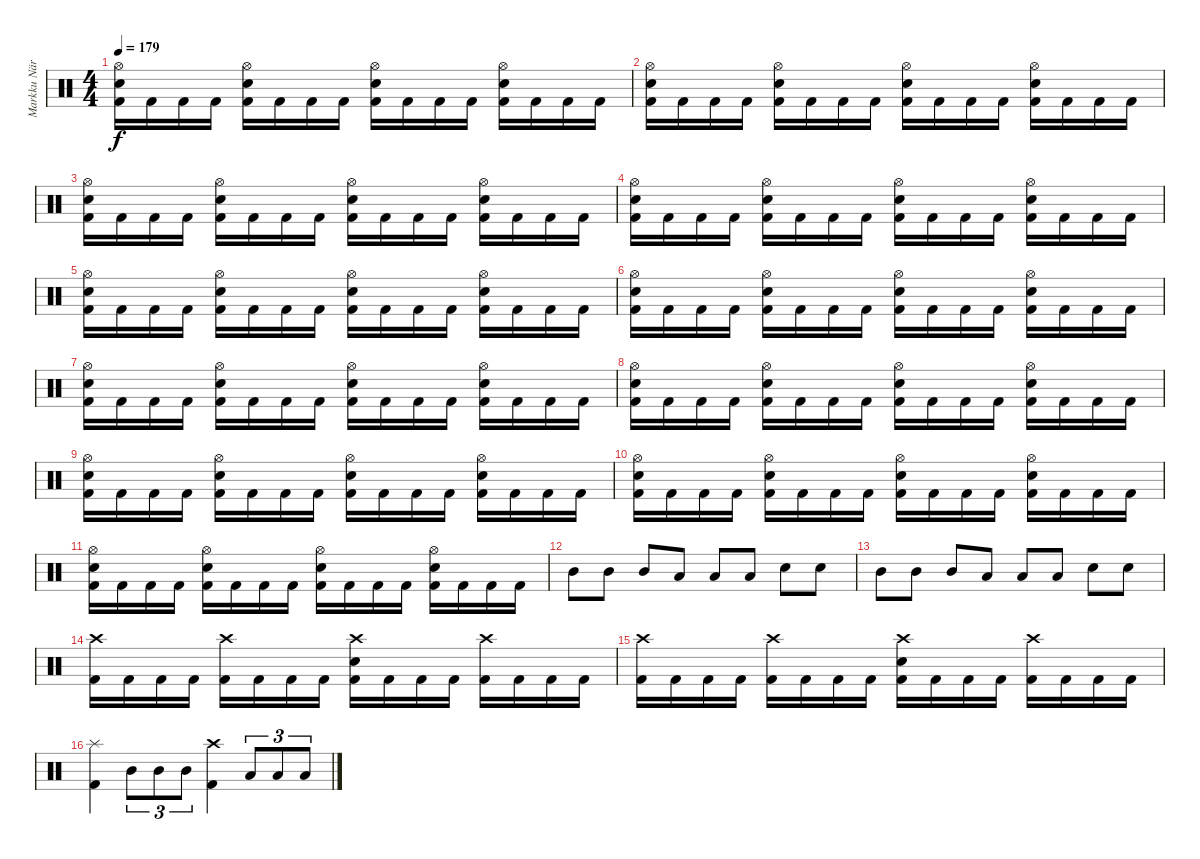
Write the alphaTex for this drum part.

\track ("Markku Näreneva (Drums)" "Markku När") {instrument percussion}
\staff {score}
\articulation defaults
\ts (4 4)
\tempo 179
\clef neutral
\ks c
("Kick (hit) 2" "Snare (hit) 2" "Hi-Hat (open)").16{dy f} "Kick (hit) 2".16 "Kick (hit) 2".16 "Kick (hit) 2".16 ("Kick (hit) 2" "Snare (hit) 2" "Hi-Hat (open)").16 "Kick (hit) 2".16 "Kick (hit) 2".16 "Kick (hit) 2".16 ("Kick (hit) 2" "Snare (hit) 2" "Hi-Hat (open)").16 "Kick (hit) 2".16 "Kick (hit) 2".16 "Kick (hit) 2".16 ("Kick (hit) 2" "Snare (hit) 2" "Hi-Hat (open)").16 "Kick (hit) 2".16 "Kick (hit) 2".16 "Kick (hit) 2".16 |
("Kick (hit) 2" "Snare (hit) 2" "Hi-Hat (open)").16 "Kick (hit) 2".16 "Kick (hit) 2".16 "Kick (hit) 2".16 ("Kick (hit) 2" "Snare (hit) 2" "Hi-Hat (open)").16 "Kick (hit) 2".16 "Kick (hit) 2".16 "Kick (hit) 2".16 ("Kick (hit) 2" "Snare (hit) 2" "Hi-Hat (open)").16 "Kick (hit) 2".16 "Kick (hit) 2".16 "Kick (hit) 2".16 ("Kick (hit) 2" "Snare (hit) 2" "Hi-Hat (open)").16 "Kick (hit) 2".16 "Kick (hit) 2".16 "Kick (hit) 2".16 |
("Kick (hit) 2" "Snare (hit) 2" "Hi-Hat (open)").16 "Kick (hit) 2".16 "Kick (hit) 2".16 "Kick (hit) 2".16 ("Kick (hit) 2" "Snare (hit) 2" "Hi-Hat (open)").16 "Kick (hit) 2".16 "Kick (hit) 2".16 "Kick (hit) 2".16 ("Kick (hit) 2" "Snare (hit) 2" "Hi-Hat (open)").16 "Kick (hit) 2".16 "Kick (hit) 2".16 "Kick (hit) 2".16 ("Kick (hit) 2" "Snare (hit) 2" "Hi-Hat (open)").16 "Kick (hit) 2".16 "Kick (hit) 2".16 "Kick (hit) 2".16 |
("Kick (hit) 2" "Snare (hit) 2" "Hi-Hat (open)").16 "Kick (hit) 2".16 "Kick (hit) 2".16 "Kick (hit) 2".16 ("Kick (hit) 2" "Snare (hit) 2" "Hi-Hat (open)").16 "Kick (hit) 2".16 "Kick (hit) 2".16 "Kick (hit) 2".16 ("Kick (hit) 2" "Snare (hit) 2" "Hi-Hat (open)").16 "Kick (hit) 2".16 "Kick (hit) 2".16 "Kick (hit) 2".16 ("Kick (hit) 2" "Snare (hit) 2" "Hi-Hat (open)").16 "Kick (hit) 2".16 "Kick (hit) 2".16 "Kick (hit) 2".16 |
("Kick (hit) 2" "Snare (hit) 2" "Hi-Hat (open)").16 "Kick (hit) 2".16 "Kick (hit) 2".16 "Kick (hit) 2".16 ("Kick (hit) 2" "Snare (hit) 2" "Hi-Hat (open)").16 "Kick (hit) 2".16 "Kick (hit) 2".16 "Kick (hit) 2".16 ("Kick (hit) 2" "Snare (hit) 2" "Hi-Hat (open)").16 "Kick (hit) 2".16 "Kick (hit) 2".16 "Kick (hit) 2".16 ("Kick (hit) 2" "Snare (hit) 2" "Hi-Hat (open)").16 "Kick (hit) 2".16 "Kick (hit) 2".16 "Kick (hit) 2".16 |
("Kick (hit) 2" "Snare (hit) 2" "Hi-Hat (open)").16 "Kick (hit) 2".16 "Kick (hit) 2".16 "Kick (hit) 2".16 ("Kick (hit) 2" "Snare (hit) 2" "Hi-Hat (open)").16 "Kick (hit) 2".16 "Kick (hit) 2".16 "Kick (hit) 2".16 ("Kick (hit) 2" "Snare (hit) 2" "Hi-Hat (open)").16 "Kick (hit) 2".16 "Kick (hit) 2".16 "Kick (hit) 2".16 ("Kick (hit) 2" "Snare (hit) 2" "Hi-Hat (open)").16 "Kick (hit) 2".16 "Kick (hit) 2".16 "Kick (hit) 2".16 |
("Kick (hit) 2" "Snare (hit) 2" "Hi-Hat (open)").16 "Kick (hit) 2".16 "Kick (hit) 2".16 "Kick (hit) 2".16 ("Kick (hit) 2" "Snare (hit) 2" "Hi-Hat (open)").16 "Kick (hit) 2".16 "Kick (hit) 2".16 "Kick (hit) 2".16 ("Kick (hit) 2" "Snare (hit) 2" "Hi-Hat (open)").16 "Kick (hit) 2".16 "Kick (hit) 2".16 "Kick (hit) 2".16 ("Kick (hit) 2" "Snare (hit) 2" "Hi-Hat (open)").16 "Kick (hit) 2".16 "Kick (hit) 2".16 "Kick (hit) 2".16 |
("Kick (hit) 2" "Snare (hit) 2" "Hi-Hat (open)").16 "Kick (hit) 2".16 "Kick (hit) 2".16 "Kick (hit) 2".16 ("Kick (hit) 2" "Snare (hit) 2" "Hi-Hat (open)").16 "Kick (hit) 2".16 "Kick (hit) 2".16 "Kick (hit) 2".16 ("Kick (hit) 2" "Snare (hit) 2" "Hi-Hat (open)").16 "Kick (hit) 2".16 "Kick (hit) 2".16 "Kick (hit) 2".16 ("Kick (hit) 2" "Snare (hit) 2" "Hi-Hat (open)").16 "Kick (hit) 2".16 "Kick (hit) 2".16 "Kick (hit) 2".16 |
("Kick (hit) 2" "Snare (hit) 2" "Hi-Hat (open)").16 "Kick (hit) 2".16 "Kick (hit) 2".16 "Kick (hit) 2".16 ("Kick (hit) 2" "Snare (hit) 2" "Hi-Hat (open)").16 "Kick (hit) 2".16 "Kick (hit) 2".16 "Kick (hit) 2".16 ("Kick (hit) 2" "Snare (hit) 2" "Hi-Hat (open)").16 "Kick (hit) 2".16 "Kick (hit) 2".16 "Kick (hit) 2".16 ("Kick (hit) 2" "Snare (hit) 2" "Hi-Hat (open)").16 "Kick (hit) 2".16 "Kick (hit) 2".16 "Kick (hit) 2".16 |
("Kick (hit) 2" "Snare (hit) 2" "Hi-Hat (open)").16 "Kick (hit) 2".16 "Kick (hit) 2".16 "Kick (hit) 2".16 ("Kick (hit) 2" "Snare (hit) 2" "Hi-Hat (open)").16 "Kick (hit) 2".16 "Kick (hit) 2".16 "Kick (hit) 2".16 ("Kick (hit) 2" "Snare (hit) 2" "Hi-Hat (open)").16 "Kick (hit) 2".16 "Kick (hit) 2".16 "Kick (hit) 2".16 ("Kick (hit) 2" "Snare (hit) 2" "Hi-Hat (open)").16 "Kick (hit) 2".16 "Kick (hit) 2".16 "Kick (hit) 2".16 |
("Kick (hit) 2" "Snare (hit) 2" "Hi-Hat (open)").16 "Kick (hit) 2".16 "Kick (hit) 2".16 "Kick (hit) 2".16 ("Kick (hit) 2" "Snare (hit) 2" "Hi-Hat (open)").16 "Kick (hit) 2".16 "Kick (hit) 2".16 "Kick (hit) 2".16 ("Kick (hit) 2" "Snare (hit) 2" "Hi-Hat (open)").16 "Kick (hit) 2".16 "Kick (hit) 2".16 "Kick (hit) 2".16 ("Kick (hit) 2" "Snare (hit) 2" "Hi-Hat (open)").16 "Kick (hit) 2".16 "Kick (hit) 2".16 "Kick (hit) 2".16 |
"Mid Tom (hit)".8 "Mid Tom (hit)".8 "Mid Tom (hit)".8 "Low Tom (hit)".8 "Low Tom (hit)".8 "Low Tom (hit)".8 "Snare (hit) 2".8 "Snare (hit) 2".8 |
"Mid Tom (hit)".8 "Mid Tom (hit)".8 "Mid Tom (hit)".8 "Low Tom (hit)".8 "Low Tom (hit)".8 "Low Tom (hit)".8 "Snare (hit) 2".8 "Snare (hit) 2".8 |
("Kick (hit) 2" "Crash high (hit)").16 "Kick (hit) 2".16 "Kick (hit) 2".16 "Kick (hit) 2".16 ("Kick (hit) 2" "Crash high (hit)").16 "Kick (hit) 2".16 "Kick (hit) 2".16 "Kick (hit) 2".16 ("Kick (hit) 2" "Snare (hit) 2" "Crash high (hit)").16 "Kick (hit) 2".16 "Kick (hit) 2".16 "Kick (hit) 2".16 ("Kick (hit) 2" "Crash high (hit)").16 "Kick (hit) 2".16 "Kick (hit) 2".16 "Kick (hit) 2".16 |
("Kick (hit) 2" "Crash high (hit)").16 "Kick (hit) 2".16 "Kick (hit) 2".16 "Kick (hit) 2".16 ("Kick (hit) 2" "Crash high (hit)").16 "Kick (hit) 2".16 "Kick (hit) 2".16 "Kick (hit) 2".16 ("Kick (hit) 2" "Snare (hit) 2" "Crash high (hit)").16 "Kick (hit) 2".16 "Kick (hit) 2".16 "Kick (hit) 2".16 ("Kick (hit) 2" "Crash high (hit)").16 "Kick (hit) 2".16 "Kick (hit) 2".16 "Kick (hit) 2".16 |
("Kick (hit) 2" "Splash (hit)").4 "Mid Tom (hit)".8{tu (3 2)} "Mid Tom (hit)".8{tu (3 2)} "Mid Tom (hit)".8{tu (3 2)} ("Kick (hit) 2" "Crash high (hit)").4 "Low Tom (hit)".8{tu (3 2)} "Low Tom (hit)".8{tu (3 2)} "Low Tom (hit)".8{tu (3 2)}
